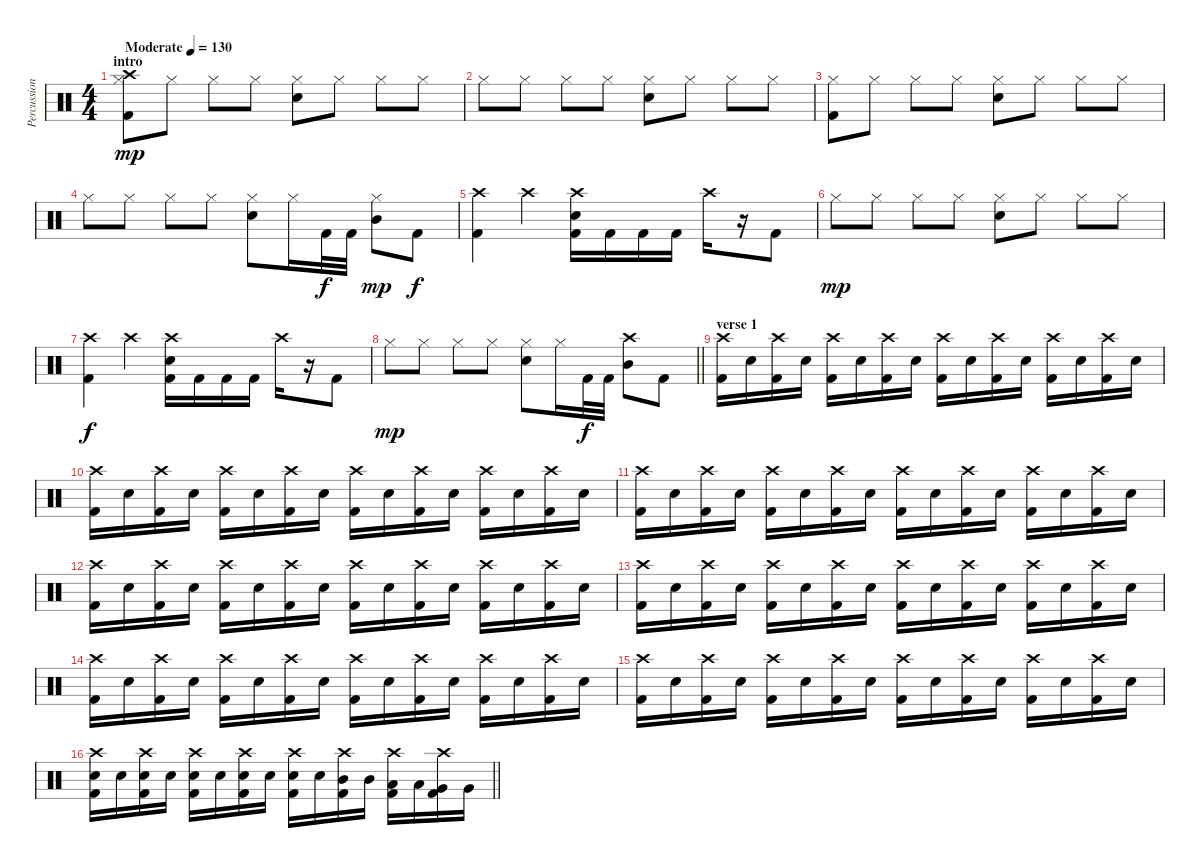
\track ("Percussion" "Percussion") {instrument percussion}
\staff {score}
\articulation defaults
\ts (4 4)
\section ("" "intro")
\tempo (130 "Moderate")
\clef neutral
\ks c
("Hi-Hat (closed)" "Crash high (hit)" "Kick (hit) 2").8{dy mp} "Hi-Hat (closed)".8 "Hi-Hat (closed)".8 "Hi-Hat (closed)".8 ("Hi-Hat (closed)" "Electric Snare (hit)").8 "Hi-Hat (closed)".8 "Hi-Hat (closed)".8 "Hi-Hat (closed)".8 |
"Hi-Hat (closed)".8 "Hi-Hat (closed)".8 "Hi-Hat (closed)".8 "Hi-Hat (closed)".8 ("Hi-Hat (closed)" "Electric Snare (hit)").8 "Hi-Hat (closed)".8 "Hi-Hat (closed)".8 "Hi-Hat (closed)".8 |
("Hi-Hat (closed)" "Kick (hit) 2").8 "Hi-Hat (closed)".8 "Hi-Hat (closed)".8 "Hi-Hat (closed)".8 ("Hi-Hat (closed)" "Electric Snare (hit)").8 "Hi-Hat (closed)".8 "Hi-Hat (closed)".8 "Hi-Hat (closed)".8 |
"Hi-Hat (closed)".8 "Hi-Hat (closed)".8 "Hi-Hat (closed)".8 "Hi-Hat (closed)".8 ("Hi-Hat (closed)" "Electric Snare (hit)").8 "Hi-Hat (closed)".16 "Kick (hit) 2".32{dy f} "Kick (hit) 2".32 ("Hi-Hat (closed)" "Mid Tom (hit)").8{dy mp} "Kick (hit) 2".8{dy f} |
("Crash high (hit)" "Kick (hit) 2").4 "Crash high (hit)".4 ("Crash high (hit)" "Electric Snare (hit)" "Kick (hit) 2").16 "Kick (hit) 2".16 "Kick (hit) 2".16 "Kick (hit) 2".16 "Crash high (hit)".16 r.16 "Kick (hit) 2".8 |
"Hi-Hat (closed)".8{dy mp} "Hi-Hat (closed)".8 "Hi-Hat (closed)".8 "Hi-Hat (closed)".8 ("Hi-Hat (closed)" "Electric Snare (hit)").8 "Hi-Hat (closed)".8 "Hi-Hat (closed)".8 "Hi-Hat (closed)".8 |
("Crash high (hit)" "Kick (hit) 2").4{dy f} "Crash high (hit)".4 ("Crash high (hit)" "Electric Snare (hit)" "Kick (hit) 2").16 "Kick (hit) 2".16 "Kick (hit) 2".16 "Kick (hit) 2".16 "Crash high (hit)".16 r.16 "Kick (hit) 2".8 |
\barLineRight lightlight "Hi-Hat (closed)".8{dy mp} "Hi-Hat (closed)".8 "Hi-Hat (closed)".8 "Hi-Hat (closed)".8
("Hi-Hat (closed)" "Electric Snare (hit)").8 "Hi-Hat (closed)".16 "Kick (hit) 2".32{dy f} "Kick (hit) 2".32 ("Crash high (hit)" "Mid Tom (hit)").8 "Kick (hit) 2".8 |
\section ("" "verse 1")
("Crash high (hit)" "Kick (hit) 2").16 "Electric Snare (hit)".16 ("Crash high (hit)" "Kick (hit) 2").16 "Electric Snare (hit)".16 ("Crash high (hit)" "Kick (hit) 2").16 "Electric Snare (hit)".16 ("Crash high (hit)" "Kick (hit) 2").16 "Electric Snare (hit)".16 ("Crash high (hit)" "Kick (hit) 2").16 "Electric Snare (hit)".16 ("Crash high (hit)" "Kick (hit) 2").16 "Electric Snare (hit)".16 ("Crash high (hit)" "Kick (hit) 2").16 "Electric Snare (hit)".16 ("Crash high (hit)" "Kick (hit) 2").16 "Electric Snare (hit)".16 |
("Crash high (hit)" "Kick (hit) 2").16 "Electric Snare (hit)".16 ("Crash high (hit)" "Kick (hit) 2").16 "Electric Snare (hit)".16 ("Crash high (hit)" "Kick (hit) 2").16 "Electric Snare (hit)".16 ("Crash high (hit)" "Kick (hit) 2").16 "Electric Snare (hit)".16 ("Crash high (hit)" "Kick (hit) 2").16 "Electric Snare (hit)".16 ("Crash high (hit)" "Kick (hit) 2").16 "Electric Snare (hit)".16 ("Crash high (hit)" "Kick (hit) 2").16 "Electric Snare (hit)".16 ("Crash high (hit)" "Kick (hit) 2").16 "Electric Snare (hit)".16 |
("Crash high (hit)" "Kick (hit) 2").16 "Electric Snare (hit)".16 ("Crash high (hit)" "Kick (hit) 2").16 "Electric Snare (hit)".16 ("Crash high (hit)" "Kick (hit) 2").16 "Electric Snare (hit)".16 ("Crash high (hit)" "Kick (hit) 2").16 "Electric Snare (hit)".16 ("Crash high (hit)" "Kick (hit) 2").16 "Electric Snare (hit)".16 ("Crash high (hit)" "Kick (hit) 2").16 "Electric Snare (hit)".16 ("Crash high (hit)" "Kick (hit) 2").16 "Electric Snare (hit)".16 ("Crash high (hit)" "Kick (hit) 2").16 "Electric Snare (hit)".16 |
("Crash high (hit)" "Kick (hit) 2").16 "Electric Snare (hit)".16 ("Crash high (hit)" "Kick (hit) 2").16 "Electric Snare (hit)".16 ("Crash high (hit)" "Kick (hit) 2").16 "Electric Snare (hit)".16 ("Crash high (hit)" "Kick (hit) 2").16 "Electric Snare (hit)".16 ("Crash high (hit)" "Kick (hit) 2").16 "Electric Snare (hit)".16 ("Crash high (hit)" "Kick (hit) 2").16 "Electric Snare (hit)".16 ("Crash high (hit)" "Kick (hit) 2").16 "Electric Snare (hit)".16 ("Crash high (hit)" "Kick (hit) 2").16 "Electric Snare (hit)".16 |
("Crash high (hit)" "Kick (hit) 2").16 "Electric Snare (hit)".16 ("Crash high (hit)" "Kick (hit) 2").16 "Electric Snare (hit)".16 ("Crash high (hit)" "Kick (hit) 2").16 "Electric Snare (hit)".16 ("Crash high (hit)" "Kick (hit) 2").16 "Electric Snare (hit)".16 ("Crash high (hit)" "Kick (hit) 2").16 "Electric Snare (hit)".16 ("Crash high (hit)" "Kick (hit) 2").16 "Electric Snare (hit)".16 ("Crash high (hit)" "Kick (hit) 2").16 "Electric Snare (hit)".16 ("Crash high (hit)" "Kick (hit) 2").16 "Electric Snare (hit)".16 |
("Crash high (hit)" "Kick (hit) 2").16 "Electric Snare (hit)".16 ("Crash high (hit)" "Kick (hit) 2").16 "Electric Snare (hit)".16 ("Crash high (hit)" "Kick (hit) 2").16 "Electric Snare (hit)".16 ("Crash high (hit)" "Kick (hit) 2").16 "Electric Snare (hit)".16 ("Crash high (hit)" "Kick (hit) 2").16 "Electric Snare (hit)".16 ("Crash high (hit)" "Kick (hit) 2").16 "Electric Snare (hit)".16 ("Crash high (hit)" "Kick (hit) 2").16 "Electric Snare (hit)".16 ("Crash high (hit)" "Kick (hit) 2").16 "Electric Snare (hit)".16 |
("Crash high (hit)" "Kick (hit) 2").16 "Electric Snare (hit)".16 ("Crash high (hit)" "Kick (hit) 2").16 "Electric Snare (hit)".16 ("Crash high (hit)" "Kick (hit) 2").16 "Electric Snare (hit)".16 ("Crash high (hit)" "Kick (hit) 2").16 "Electric Snare (hit)".16 ("Crash high (hit)" "Kick (hit) 2").16 "Electric Snare (hit)".16 ("Crash high (hit)" "Kick (hit) 2").16 "Electric Snare (hit)".16 ("Crash high (hit)" "Kick (hit) 2").16 "Electric Snare (hit)".16 ("Crash high (hit)" "Kick (hit) 2").16 "Electric Snare (hit)".16 |
\barLineRight lightlight
("Crash high (hit)" "Electric Snare (hit)" "Kick (hit) 2").16 "Electric Snare (hit)".16 ("Crash high (hit)" "Electric Snare (hit)" "Kick (hit) 2").16 "Electric Snare (hit)".16 ("Crash high (hit)" "Electric Snare (hit)" "Kick (hit) 2").16 "Electric Snare (hit)".16 ("Crash high (hit)" "Electric Snare (hit)" "Kick (hit) 2").16 "Electric Snare (hit)".16 ("Crash high (hit)" "Electric Snare (hit)" "Kick (hit) 2").16 "Electric Snare (hit)".16 ("Crash high (hit)" "Mid Tom (hit)" "Kick (hit) 2").16 "Mid Tom (hit)".16 ("Crash high (hit)" "Low Tom (hit)" "Kick (hit) 2").16 "Low Tom (hit)".16 ("Crash high (hit)" "Very Low Tom (hit)" "Kick (hit) 2").16 "Very Low Tom (hit)".16
